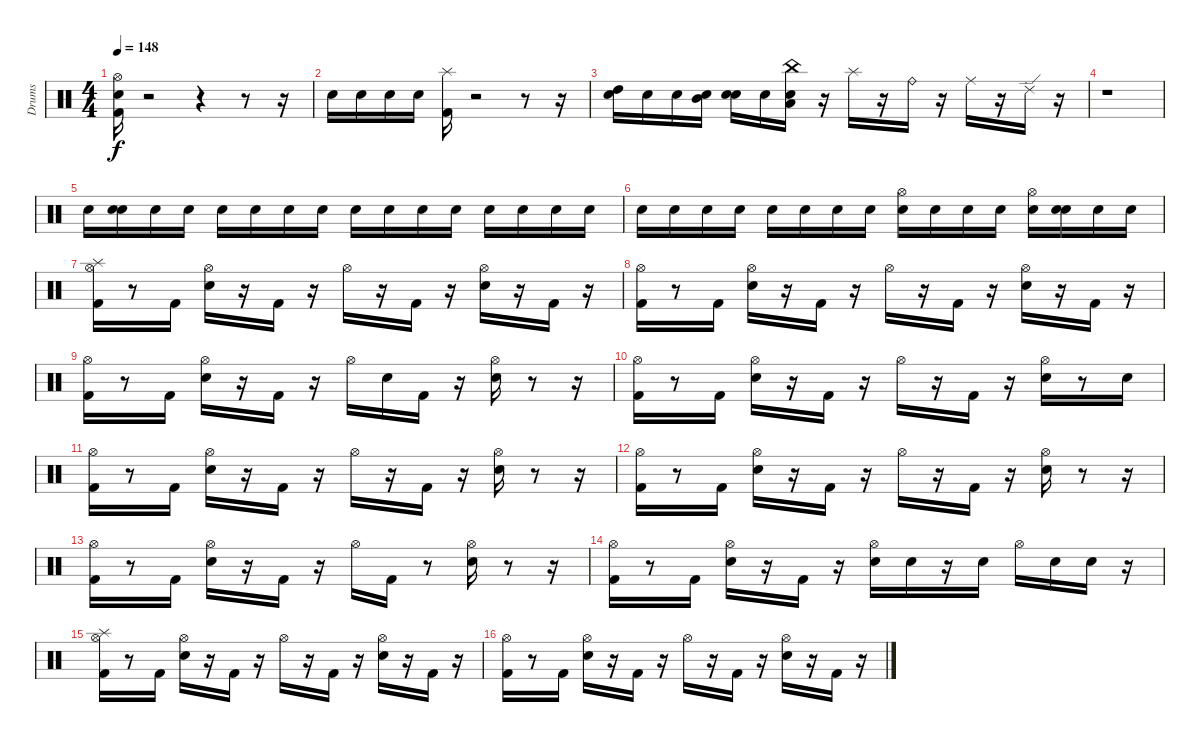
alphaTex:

\track ("Drums" "Drums") {instrument percussion}
\staff {score}
\articulation defaults
\ts (4 4)
\tempo 148
\clef neutral
\ks c
("Hi-Hat (open)" "Kick (hit) 2" "Snare (hit) 2").16{dy f} r.2 r.4 r.8 r.16 |
"Snare (hit) 2".16 "Snare (hit) 2".16 "Snare (hit) 2".16 "Snare (hit) 2".16 ("Splash (hit)" "Kick (hit) 2").16 r.2 r.8 r.16 |
("High Tom (hit)" "Snare (hit) 2").16 "Snare (hit) 2".16 "Snare (hit) 2".16 ("Mid Tom (hit)" "Snare (hit) 2").16 ("Snare (hit)" "Snare (hit) 2").16 "Snare (hit) 2".16 ("Low Tom (hit)" "China (hit)" "Snare (hit) 2").16 r.16 "Splash (hit)".16 r.16 "Ride (bell)".16 r.16 "Ride (middle)".16 r.16 "Ride (edge) 2".16 r.16 |
r.1 |
"Snare (hit) 2".16 ("Snare (hit)" "Snare (hit) 2").16 "Snare (hit) 2".16 "Snare (hit) 2".16 "Snare (hit) 2".16 "Snare (hit) 2".16 "Snare (hit) 2".16 "Snare (hit) 2".16 "Snare (hit) 2".16 "Snare (hit) 2".16 "Snare (hit) 2".16 "Snare (hit) 2".16 "Snare (hit) 2".16 "Snare (hit) 2".16 "Snare (hit) 2".16 "Snare (hit) 2".16 |
"Snare (hit) 2".16 "Snare (hit) 2".16 "Snare (hit) 2".16 "Snare (hit) 2".16 "Snare (hit) 2".16 "Snare (hit) 2".16 "Snare (hit) 2".16 "Snare (hit) 2".16 ("Snare (hit) 2" "Hi-Hat (open)").16 "Snare (hit) 2".16 "Snare (hit) 2".16 "Snare (hit) 2".16 ("Hi-Hat (open)" "Snare (hit) 2").16 ("Snare (hit)" "Snare (hit) 2").16 "Snare (hit) 2".16 "Snare (hit) 2".16 |
("Splash (hit)" "Hi-Hat (open)" "Kick (hit) 2").16 r.8 "Kick (hit) 2".16 ("Hi-Hat (open)" "Snare (hit) 2").16 r.16 "Kick (hit) 2".16 r.16 "Hi-Hat (open)".16 r.16 "Kick (hit) 2".16 r.16 ("Hi-Hat (open)" "Snare (hit) 2").16 r.16 "Kick (hit) 2".16 r.16 |
("Hi-Hat (open)" "Kick (hit) 2").16 r.8 "Kick (hit) 2".16 ("Hi-Hat (open)" "Snare (hit) 2").16 r.16 "Kick (hit) 2".16 r.16 "Hi-Hat (open)".16 r.16 "Kick (hit) 2".16 r.16 ("Hi-Hat (open)" "Snare (hit) 2").16 r.16 "Kick (hit) 2".16 r.16 |
("Hi-Hat (open)" "Kick (hit) 2").16 r.8 "Kick (hit) 2".16 ("Hi-Hat (open)" "Snare (hit) 2").16 r.16 "Kick (hit) 2".16 r.16 "Hi-Hat (open)".16 "Snare (hit) 2".16 "Kick (hit) 2".16 r.16 ("Hi-Hat (open)" "Snare (hit) 2").16 r.8 r.16 |
("Hi-Hat (open)" "Kick (hit) 2").16 r.8 "Kick (hit) 2".16 ("Hi-Hat (open)" "Snare (hit) 2").16 r.16 "Kick (hit) 2".16 r.16 "Hi-Hat (open)".16 r.16 "Kick (hit) 2".16 r.16 ("Hi-Hat (open)" "Snare (hit) 2").16 r.8 "Snare (hit) 2".16 |
("Hi-Hat (open)" "Kick (hit) 2").16 r.8 "Kick (hit) 2".16 ("Hi-Hat (open)" "Snare (hit) 2").16 r.16 "Kick (hit) 2".16 r.16 "Hi-Hat (open)".16 r.16 "Kick (hit) 2".16 r.16 ("Hi-Hat (open)" "Snare (hit) 2").16 r.8 r.16 |
("Hi-Hat (open)" "Kick (hit) 2").16 r.8 "Kick (hit) 2".16 ("Hi-Hat (open)" "Snare (hit) 2").16 r.16 "Kick (hit) 2".16 r.16 "Hi-Hat (open)".16 r.16 "Kick (hit) 2".16 r.16 ("Hi-Hat (open)" "Snare (hit) 2").16 r.8 r.16 |
("Hi-Hat (open)" "Kick (hit) 2").16 r.8 "Kick (hit) 2".16 ("Hi-Hat (open)" "Snare (hit) 2").16 r.16 "Kick (hit) 2".16 r.16 "Hi-Hat (open)".16 "Kick (hit) 2".16 r.8 ("Hi-Hat (open)" "Snare (hit) 2").16 r.8 r.16 |
("Hi-Hat (open)" "Kick (hit) 2").16 r.8 "Kick (hit) 2".16 ("Hi-Hat (open)" "Snare (hit) 2").16 r.16 "Kick (hit) 2".16 r.16 ("Hi-Hat (open)" "Snare (hit) 2").16 "Snare (hit) 2".16 r.16 "Snare (hit) 2".16 "Hi-Hat (open)".16 "Snare (hit) 2".16 "Snare (hit) 2".16 r.16 |
("Splash (hit)" "Hi-Hat (open)" "Kick (hit) 2").16 r.8 "Kick (hit) 2".16 ("Hi-Hat (open)" "Snare (hit) 2").16 r.16 "Kick (hit) 2".16 r.16 "Hi-Hat (open)".16 r.16 "Kick (hit) 2".16 r.16 ("Hi-Hat (open)" "Snare (hit) 2").16 r.16 "Kick (hit) 2".16 r.16 |
("Hi-Hat (open)" "Kick (hit) 2").16 r.8 "Kick (hit) 2".16 ("Hi-Hat (open)" "Snare (hit) 2").16 r.16 "Kick (hit) 2".16 r.16 "Hi-Hat (open)".16 r.16 "Kick (hit) 2".16 r.16 ("Hi-Hat (open)" "Snare (hit) 2").16 r.16 "Kick (hit) 2".16 r.16
